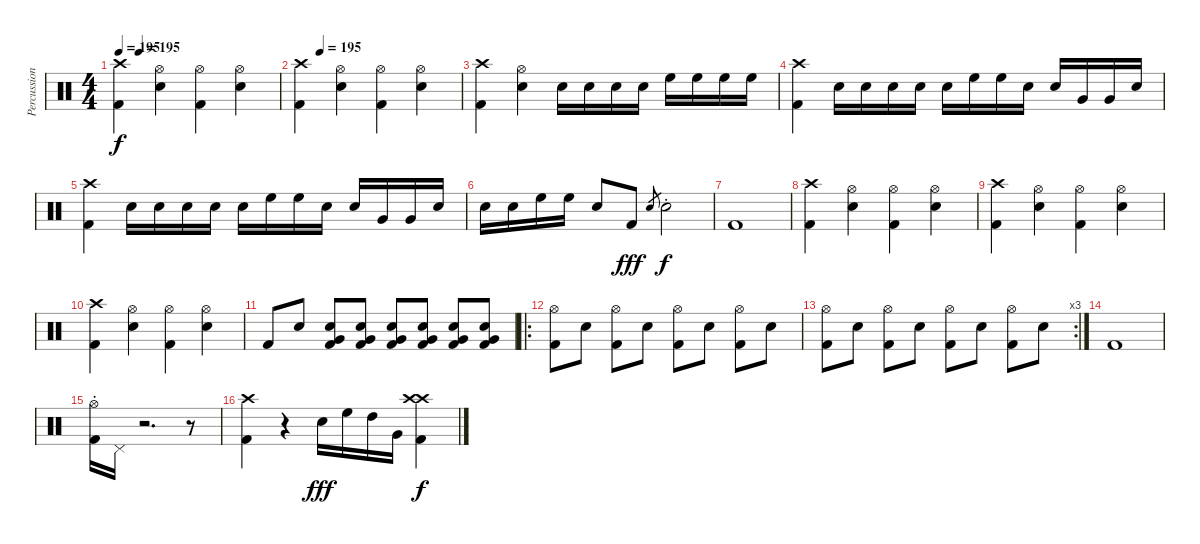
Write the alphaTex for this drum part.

\track ("Percussion" "Percussion") {instrument percussion}
\staff {score}
\articulation defaults
\ts (4 4)
\tempo 195
\tempo (195 0.125)
\clef neutral
\ks c
("Crash high (hit)" "Kick (hit) 2").4{dy f} ("Hi-Hat (open)" "Electric Snare (hit)").4 ("Hi-Hat (open)" "Kick (hit) 2").4 ("Hi-Hat (open)" "Electric Snare (hit)").4 |
\tempo (195 0.125)
("Crash high (hit)" "Kick (hit) 2").4 ("Hi-Hat (open)" "Electric Snare (hit)").4 ("Hi-Hat (open)" "Kick (hit) 2").4 ("Hi-Hat (open)" "Electric Snare (hit)").4 |
("Crash high (hit)" "Kick (hit) 2").4 ("Hi-Hat (open)" "Electric Snare (hit)").4 "Electric Snare (hit)".16 "Electric Snare (hit)".16 "Electric Snare (hit)".16 "Electric Snare (hit)".16 "High Floor Tom (hit)".16 "High Floor Tom (hit)".16 "High Floor Tom (hit)".16 "High Floor Tom (hit)".16 |
("Crash high (hit)" "Kick (hit) 2").4 "Electric Snare (hit)".16 "Electric Snare (hit)".16 "Electric Snare (hit)".16 "Electric Snare (hit)".16 "Electric Snare (hit)".16 "High Floor Tom (hit)".16 "High Floor Tom (hit)".16 "Electric Snare (hit)".16 "Electric Snare (hit)".16 "Very Low Tom (hit)".16 "Very Low Tom (hit)".16 "Electric Snare (hit)".16 |
("Crash high (hit)" "Kick (hit) 2").4 "Electric Snare (hit)".16 "Electric Snare (hit)".16 "Electric Snare (hit)".16 "Electric Snare (hit)".16 "Electric Snare (hit)".16 "High Floor Tom (hit)".16 "High Floor Tom (hit)".16 "Electric Snare (hit)".16 "Electric Snare (hit)".16 "Very Low Tom (hit)".16 "Very Low Tom (hit)".16 "Electric Snare (hit)".16 |
"Electric Snare (hit)".16 "Electric Snare (hit)".16 "High Floor Tom (hit)".16 "High Floor Tom (hit)".16 "Electric Snare (hit)".8 "Kick (hit) 2".8{dy fff} "Electric Snare (hit)".8{gr} "Electric Snare (hit)"{st}.2{dy f} |
"Kick (hit) 2".1 |
("Crash high (hit)" "Kick (hit) 2").4 ("Hi-Hat (open)" "Electric Snare (hit)").4 ("Hi-Hat (open)" "Kick (hit) 2").4 ("Hi-Hat (open)" "Electric Snare (hit)").4 |
("Crash high (hit)" "Kick (hit) 2").4 ("Hi-Hat (open)" "Electric Snare (hit)").4 ("Hi-Hat (open)" "Kick (hit) 2").4 ("Hi-Hat (open)" "Electric Snare (hit)").4 |
("Crash high (hit)" "Kick (hit) 2").4 ("Hi-Hat (open)" "Electric Snare (hit)").4 ("Hi-Hat (open)" "Kick (hit) 2").4 ("Hi-Hat (open)" "Electric Snare (hit)").4 |
"Kick (hit) 2".8 "Electric Snare (hit)".8 ("Electric Snare (hit)" "Very Low Tom (hit)" "Kick (hit) 2").8 ("Electric Snare (hit)" "Very Low Tom (hit)" "Kick (hit) 2").8 ("Electric Snare (hit)" "Very Low Tom (hit)" "Kick (hit) 2").8 ("Electric Snare (hit)" "Very Low Tom (hit)" "Kick (hit) 2").8 ("Electric Snare (hit)" "Very Low Tom (hit)" "Kick (hit) 2").8 ("Electric Snare (hit)" "Very Low Tom (hit)" "Kick (hit) 2").8 |
\ro
("Hi-Hat (open)" "Kick (hit) 2").8 "Electric Snare (hit)".8 ("Hi-Hat (open)" "Kick (hit) 2").8 "Electric Snare (hit)".8 ("Hi-Hat (open)" "Kick (hit) 2").8 "Electric Snare (hit)".8 ("Hi-Hat (open)" "Kick (hit) 2").8 "Electric Snare (hit)".8 |
\rc 3
("Hi-Hat (open)" "Kick (hit) 2").8 "Electric Snare (hit)".8 ("Hi-Hat (open)" "Kick (hit) 2").8 "Electric Snare (hit)".8 ("Hi-Hat (open)" "Kick (hit) 2").8 "Electric Snare (hit)".8 ("Hi-Hat (open)" "Kick (hit) 2").8 "Electric Snare (hit)".8 |
"Kick (hit) 2".1 |
("Hi-Hat (open)"{st} "Kick (hit) 2"{st}).16 "Pedal Hi-Hat (hit)".16 r.2{d} r.8 |
("Crash high (hit)" "Kick (hit) 2").4 r.4 "Electric Snare (hit)".16{dy fff} "High Floor Tom (hit)".16 "High Tom (hit)".16 "Very Low Tom (hit)".16 ("Crash high (hit)" "Crash high (hit)" "Kick (hit) 2").4{dy f}
